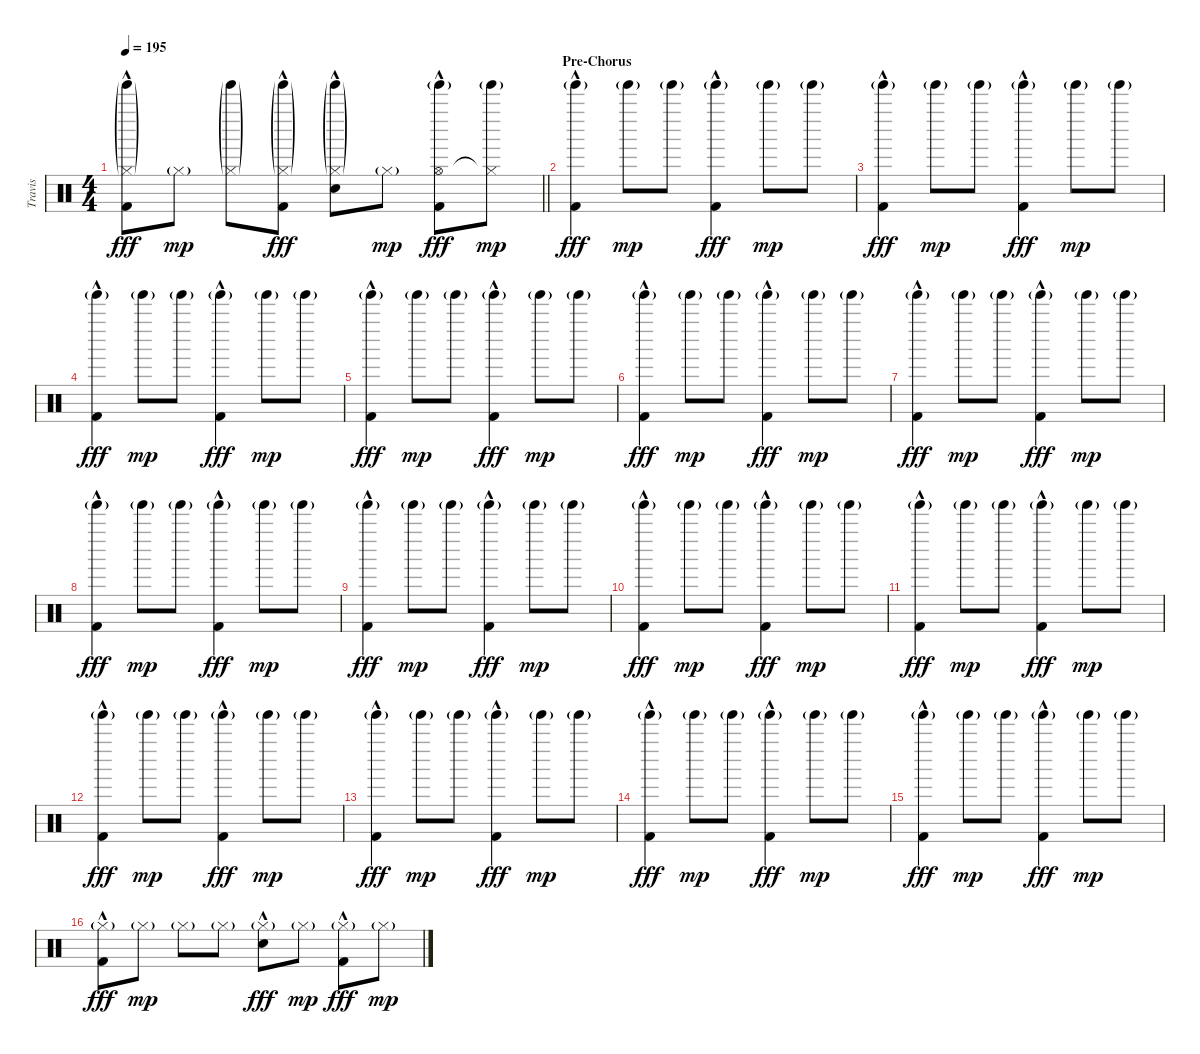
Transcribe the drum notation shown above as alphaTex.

\track ("Travis" "Travis") {instrument percussion}
\staff {score}
\articulation defaults
\ts (4 4)
\tempo 195
\clef neutral
\barLineRight lightlight
\ks c
("Tinkle Bell (hit)"{g} "Hi-Hat (closed)"{g} "Kick (hit) 2"{hac}).8{dy fff} "Hi-Hat (closed)"{g}.8{dy mp} ("Tinkle Bell (hit)"{g} "Hi-Hat (closed)"{g}).8 ("Tinkle Bell (hit)"{g} "Hi-Hat (closed)"{g} "Kick (hit) 2"{hac}).8{dy fff} ("Tinkle Bell (hit)"{g} "Hi-Hat (closed)"{g} "Electric Snare (hit)"{hac}).8 "Hi-Hat (closed)"{g}.8{dy mp} ("Tinkle Bell (hit)"{g} "Hi-Hat (open)" "Kick (hit) 2"{hac}).8{dy fff} ("Tinkle Bell (hit)"{g} "Hi-Hat (closed)"{t}).8{dy mp} |
\section ("" "Pre-Chorus")
("Tinkle Bell (hit)"{g} "Kick (hit) 2"{hac}).4{dy fff} "Tinkle Bell (hit)"{g}.8{dy mp} "Tinkle Bell (hit)"{g}.8 ("Tinkle Bell (hit)"{g} "Kick (hit) 2"{hac}).4{dy fff} "Tinkle Bell (hit)"{g}.8{dy mp} "Tinkle Bell (hit)"{g}.8 |
("Tinkle Bell (hit)"{g} "Kick (hit) 2"{hac}).4{dy fff} "Tinkle Bell (hit)"{g}.8{dy mp} "Tinkle Bell (hit)"{g}.8 ("Tinkle Bell (hit)"{g} "Kick (hit) 2"{hac}).4{dy fff} "Tinkle Bell (hit)"{g}.8{dy mp} "Tinkle Bell (hit)"{g}.8 |
("Tinkle Bell (hit)"{g} "Kick (hit) 2"{hac}).4{dy fff} "Tinkle Bell (hit)"{g}.8{dy mp} "Tinkle Bell (hit)"{g}.8 ("Tinkle Bell (hit)"{g} "Kick (hit) 2"{hac}).4{dy fff} "Tinkle Bell (hit)"{g}.8{dy mp} "Tinkle Bell (hit)"{g}.8 |
("Tinkle Bell (hit)"{g} "Kick (hit) 2"{hac}).4{dy fff} "Tinkle Bell (hit)"{g}.8{dy mp} "Tinkle Bell (hit)"{g}.8 ("Tinkle Bell (hit)"{g} "Kick (hit) 2"{hac}).4{dy fff} "Tinkle Bell (hit)"{g}.8{dy mp} "Tinkle Bell (hit)"{g}.8 |
("Tinkle Bell (hit)"{g} "Kick (hit) 2"{hac}).4{dy fff} "Tinkle Bell (hit)"{g}.8{dy mp} "Tinkle Bell (hit)"{g}.8 ("Tinkle Bell (hit)"{g} "Kick (hit) 2"{hac}).4{dy fff} "Tinkle Bell (hit)"{g}.8{dy mp} "Tinkle Bell (hit)"{g}.8 |
("Tinkle Bell (hit)"{g} "Kick (hit) 2"{hac}).4{dy fff} "Tinkle Bell (hit)"{g}.8{dy mp} "Tinkle Bell (hit)"{g}.8 ("Tinkle Bell (hit)"{g} "Kick (hit) 2"{hac}).4{dy fff} "Tinkle Bell (hit)"{g}.8{dy mp} "Tinkle Bell (hit)"{g}.8 |
("Tinkle Bell (hit)"{g} "Kick (hit) 2"{hac}).4{dy fff} "Tinkle Bell (hit)"{g}.8{dy mp} "Tinkle Bell (hit)"{g}.8 ("Tinkle Bell (hit)"{g} "Kick (hit) 2"{hac}).4{dy fff} "Tinkle Bell (hit)"{g}.8{dy mp} "Tinkle Bell (hit)"{g}.8 |
("Tinkle Bell (hit)"{g} "Kick (hit) 2"{hac}).4{dy fff} "Tinkle Bell (hit)"{g}.8{dy mp} "Tinkle Bell (hit)"{g}.8 ("Tinkle Bell (hit)"{g} "Kick (hit) 2"{hac}).4{dy fff} "Tinkle Bell (hit)"{g}.8{dy mp} "Tinkle Bell (hit)"{g}.8 |
("Tinkle Bell (hit)"{g} "Kick (hit) 2"{hac}).4{dy fff} "Tinkle Bell (hit)"{g}.8{dy mp} "Tinkle Bell (hit)"{g}.8 ("Tinkle Bell (hit)"{g} "Kick (hit) 2"{hac}).4{dy fff} "Tinkle Bell (hit)"{g}.8{dy mp} "Tinkle Bell (hit)"{g}.8 |
("Tinkle Bell (hit)"{g} "Kick (hit) 2"{hac}).4{dy fff} "Tinkle Bell (hit)"{g}.8{dy mp} "Tinkle Bell (hit)"{g}.8 ("Tinkle Bell (hit)"{g} "Kick (hit) 2"{hac}).4{dy fff} "Tinkle Bell (hit)"{g}.8{dy mp} "Tinkle Bell (hit)"{g}.8 |
("Tinkle Bell (hit)"{g} "Kick (hit) 2"{hac}).4{dy fff} "Tinkle Bell (hit)"{g}.8{dy mp} "Tinkle Bell (hit)"{g}.8 ("Tinkle Bell (hit)"{g} "Kick (hit) 2"{hac}).4{dy fff} "Tinkle Bell (hit)"{g}.8{dy mp} "Tinkle Bell (hit)"{g}.8 |
("Tinkle Bell (hit)"{g} "Kick (hit) 2"{hac}).4{dy fff} "Tinkle Bell (hit)"{g}.8{dy mp} "Tinkle Bell (hit)"{g}.8 ("Tinkle Bell (hit)"{g} "Kick (hit) 2"{hac}).4{dy fff} "Tinkle Bell (hit)"{g}.8{dy mp} "Tinkle Bell (hit)"{g}.8 |
("Tinkle Bell (hit)"{g} "Kick (hit) 2"{hac}).4{dy fff} "Tinkle Bell (hit)"{g}.8{dy mp} "Tinkle Bell (hit)"{g}.8 ("Tinkle Bell (hit)"{g} "Kick (hit) 2"{hac}).4{dy fff} "Tinkle Bell (hit)"{g}.8{dy mp} "Tinkle Bell (hit)"{g}.8 |
("Tinkle Bell (hit)"{g} "Kick (hit) 2"{hac}).4{dy fff} "Tinkle Bell (hit)"{g}.8{dy mp} "Tinkle Bell (hit)"{g}.8 ("Tinkle Bell (hit)"{g} "Kick (hit) 2"{hac}).4{dy fff} "Tinkle Bell (hit)"{g}.8{dy mp} "Tinkle Bell (hit)"{g}.8 |
("Hi-Hat (closed)"{g} "Kick (hit) 2"{hac}).8{dy fff} "Hi-Hat (closed)"{g}.8{dy mp} "Hi-Hat (closed)"{g}.8 "Hi-Hat (closed)"{g}.8 ("Hi-Hat (closed)"{g} "Electric Snare (hit)"{hac}).8{dy fff} "Hi-Hat (closed)"{g}.8{dy mp} ("Hi-Hat (closed)"{g} "Kick (hit) 2"{hac}).8{dy fff} "Hi-Hat (closed)"{g}.8{dy mp}
